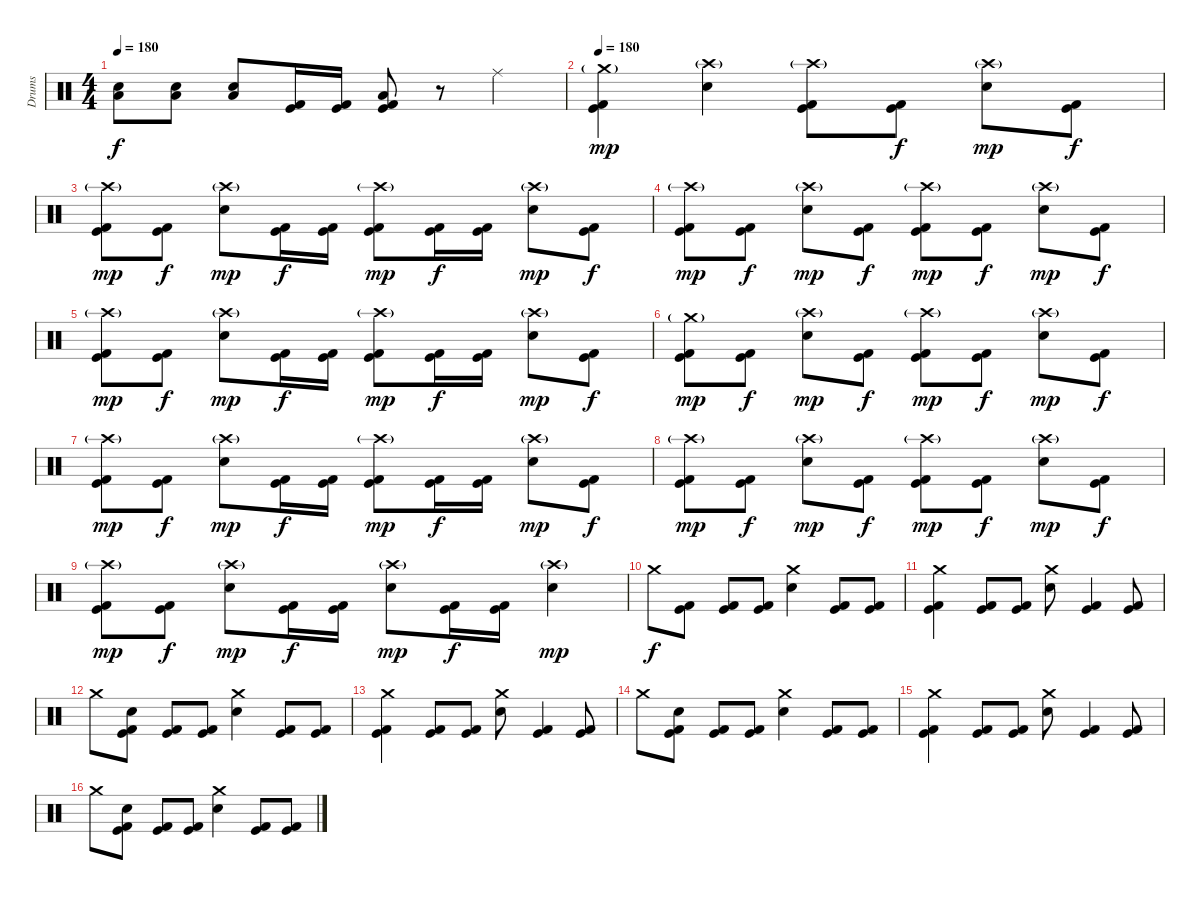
\track ("Drums" "Drums") {instrument percussion}
\staff {score}
\articulation defaults
\ts (4 4)
\tempo 180
\clef neutral
\ks c
("Electric Snare (hit)" "Low Tom (hit)").8{dy f} ("Electric Snare (hit)" "Low Tom (hit)").8 ("Electric Snare (hit)" "Low Tom (hit)").8 ("Kick (hit)" "Kick (hit) 2").16 ("Kick (hit)" "Kick (hit) 2").16 ("Low Tom (hit)" "Kick (hit)" "Kick (hit) 2").8 r.8 "Ride (middle)".4 |
\tempo 180
("Crash medium (hit)"{g} "Kick (hit)" "Kick (hit) 2").4{dy mp} ("Crash high (hit)"{g} "Electric Snare (hit)").4 ("Crash high (hit)"{g} "Kick (hit)" "Kick (hit) 2").8 ("Kick (hit)" "Kick (hit) 2").8{dy f} ("Crash high (hit)"{g} "Electric Snare (hit)").8{dy mp} ("Kick (hit)" "Kick (hit) 2").8{dy f} |
("Crash high (hit)"{g} "Kick (hit)" "Kick (hit) 2").8{dy mp} ("Kick (hit)" "Kick (hit) 2").8{dy f} ("Crash high (hit)"{g} "Electric Snare (hit)").8{dy mp} ("Kick (hit)" "Kick (hit) 2").16{dy f} ("Kick (hit)" "Kick (hit) 2").16 ("Crash high (hit)"{g} "Kick (hit)" "Kick (hit) 2").8{dy mp} ("Kick (hit)" "Kick (hit) 2").16{dy f} ("Kick (hit)" "Kick (hit) 2").16 ("Crash high (hit)"{g} "Electric Snare (hit)").8{dy mp} ("Kick (hit)" "Kick (hit) 2").8{dy f} |
("Crash high (hit)"{g} "Kick (hit)" "Kick (hit) 2").8{dy mp} ("Kick (hit)" "Kick (hit) 2").8{dy f} ("Crash high (hit)"{g} "Electric Snare (hit)").8{dy mp} ("Kick (hit)" "Kick (hit) 2").8{dy f} ("Crash high (hit)"{g} "Kick (hit)" "Kick (hit) 2").8{dy mp} ("Kick (hit)" "Kick (hit) 2").8{dy f} ("Crash high (hit)"{g} "Electric Snare (hit)").8{dy mp} ("Kick (hit)" "Kick (hit) 2").8{dy f} |
("Crash high (hit)"{g} "Kick (hit)" "Kick (hit) 2").8{dy mp} ("Kick (hit)" "Kick (hit) 2").8{dy f} ("Crash high (hit)"{g} "Electric Snare (hit)").8{dy mp} ("Kick (hit)" "Kick (hit) 2").16{dy f} ("Kick (hit)" "Kick (hit) 2").16 ("Crash high (hit)"{g} "Kick (hit)" "Kick (hit) 2").8{dy mp} ("Kick (hit)" "Kick (hit) 2").16{dy f} ("Kick (hit)" "Kick (hit) 2").16 ("Crash high (hit)"{g} "Electric Snare (hit)").8{dy mp} ("Kick (hit)" "Kick (hit) 2").8{dy f} |
("Crash medium (hit)"{g} "Kick (hit)" "Kick (hit) 2").8{dy mp} ("Kick (hit)" "Kick (hit) 2").8{dy f} ("Crash high (hit)"{g} "Electric Snare (hit)").8{dy mp} ("Kick (hit)" "Kick (hit) 2").8{dy f} ("Crash high (hit)"{g} "Kick (hit)" "Kick (hit) 2").8{dy mp} ("Kick (hit)" "Kick (hit) 2").8{dy f} ("Crash high (hit)"{g} "Electric Snare (hit)").8{dy mp} ("Kick (hit)" "Kick (hit) 2").8{dy f} |
("Crash high (hit)"{g} "Kick (hit)" "Kick (hit) 2").8{dy mp} ("Kick (hit)" "Kick (hit) 2").8{dy f} ("Crash high (hit)"{g} "Electric Snare (hit)").8{dy mp} ("Kick (hit)" "Kick (hit) 2").16{dy f} ("Kick (hit)" "Kick (hit) 2").16 ("Crash high (hit)"{g} "Kick (hit)" "Kick (hit) 2").8{dy mp} ("Kick (hit)" "Kick (hit) 2").16{dy f} ("Kick (hit)" "Kick (hit) 2").16 ("Crash high (hit)"{g} "Electric Snare (hit)").8{dy mp} ("Kick (hit)" "Kick (hit) 2").8{dy f} |
("Crash high (hit)"{g} "Kick (hit)" "Kick (hit) 2").8{dy mp} ("Kick (hit)" "Kick (hit) 2").8{dy f} ("Crash high (hit)"{g} "Electric Snare (hit)").8{dy mp} ("Kick (hit)" "Kick (hit) 2").8{dy f} ("Crash high (hit)"{g} "Kick (hit)" "Kick (hit) 2").8{dy mp} ("Kick (hit)" "Kick (hit) 2").8{dy f} ("Crash high (hit)"{g} "Electric Snare (hit)").8{dy mp} ("Kick (hit)" "Kick (hit) 2").8{dy f} |
("Crash high (hit)"{g} "Kick (hit)" "Kick (hit) 2").8{dy mp} ("Kick (hit)" "Kick (hit) 2").8{dy f} ("Crash high (hit)"{g} "Electric Snare (hit)").8{dy mp} ("Kick (hit)" "Kick (hit) 2").16{dy f} ("Kick (hit)" "Kick (hit) 2").16 ("Crash high (hit)"{g} "Electric Snare (hit)").8{dy mp} ("Kick (hit)" "Kick (hit) 2").16{dy f} ("Kick (hit)" "Kick (hit) 2").16 ("Crash high (hit)"{g} "Electric Snare (hit)").4{dy mp} |
"Crash medium (hit)".8{dy f} ("Kick (hit)" "Kick (hit) 2").8 ("Kick (hit)" "Kick (hit) 2").8 ("Kick (hit)" "Kick (hit) 2").8 ("Crash medium (hit)" "Electric Snare (hit)").4 ("Kick (hit)" "Kick (hit) 2").8 ("Kick (hit)" "Kick (hit) 2").8 |
("Crash medium (hit)" "Kick (hit)" "Kick (hit) 2").4 ("Kick (hit)" "Kick (hit) 2").8 ("Kick (hit)" "Kick (hit) 2").8 ("Crash medium (hit)" "Electric Snare (hit)").8 ("Kick (hit)" "Kick (hit) 2").4 ("Kick (hit)" "Kick (hit) 2").8 |
"Crash medium (hit)".8 ("Electric Snare (hit)" "Kick (hit)" "Kick (hit) 2").8 ("Kick (hit)" "Kick (hit) 2").8 ("Kick (hit)" "Kick (hit) 2").8 ("Crash medium (hit)" "Electric Snare (hit)").4 ("Kick (hit)" "Kick (hit) 2").8 ("Kick (hit)" "Kick (hit) 2").8 |
("Crash medium (hit)" "Kick (hit)" "Kick (hit) 2").4 ("Kick (hit)" "Kick (hit) 2").8 ("Kick (hit)" "Kick (hit) 2").8 ("Crash medium (hit)" "Electric Snare (hit)").8 ("Kick (hit)" "Kick (hit) 2").4 ("Kick (hit)" "Kick (hit) 2").8 |
"Crash medium (hit)".8 ("Electric Snare (hit)" "Kick (hit)" "Kick (hit) 2").8 ("Kick (hit)" "Kick (hit) 2").8 ("Kick (hit)" "Kick (hit) 2").8 ("Crash medium (hit)" "Electric Snare (hit)").4 ("Kick (hit)" "Kick (hit) 2").8 ("Kick (hit)" "Kick (hit) 2").8 |
("Crash medium (hit)" "Kick (hit)" "Kick (hit) 2").4 ("Kick (hit)" "Kick (hit) 2").8 ("Kick (hit)" "Kick (hit) 2").8 ("Crash medium (hit)" "Electric Snare (hit)").8 ("Kick (hit)" "Kick (hit) 2").4 ("Kick (hit)" "Kick (hit) 2").8 |
"Crash medium (hit)".8 ("Electric Snare (hit)" "Kick (hit)" "Kick (hit) 2").8 ("Kick (hit)" "Kick (hit) 2").8 ("Kick (hit)" "Kick (hit) 2").8 ("Crash medium (hit)" "Electric Snare (hit)").4 ("Kick (hit)" "Kick (hit) 2").8 ("Kick (hit)" "Kick (hit) 2").8
